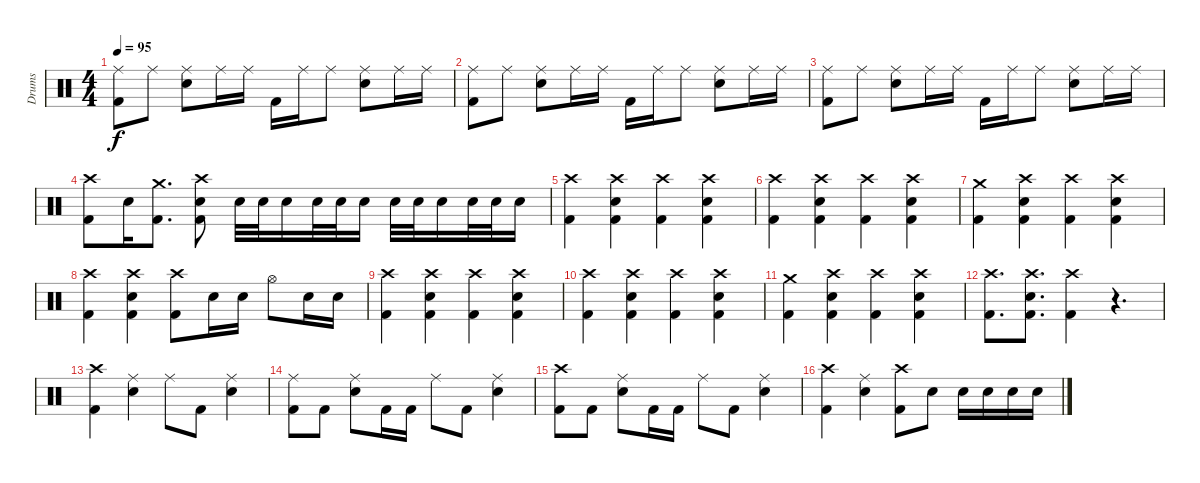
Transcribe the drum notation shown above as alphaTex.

\track ("Drums" "Drums") {instrument percussion}
\staff {score}
\articulation defaults
\ts (4 4)
\tempo 95
\clef neutral
\ks c
("Ride (middle)" "Kick (hit) 2").8{dy f} "Ride (middle)".8 ("Ride (middle)" "Snare (hit) 2").8 "Ride (middle)".16 "Ride (middle)".16 "Kick (hit) 2".16 "Ride (middle)".16 "Ride (middle)".8 ("Ride (middle)" "Snare (hit) 2").8 "Ride (middle)".16 "Ride (middle)".16 |
("Ride (middle)" "Kick (hit) 2").8 "Ride (middle)".8 ("Ride (middle)" "Snare (hit) 2").8 "Ride (middle)".16 "Ride (middle)".16 "Kick (hit) 2".16 "Ride (middle)".16 "Ride (middle)".8 ("Ride (middle)" "Snare (hit) 2").8 "Ride (middle)".16 "Ride (middle)".16 |
("Ride (middle)" "Kick (hit) 2").8 "Ride (middle)".8 ("Ride (middle)" "Snare (hit) 2").8 "Ride (middle)".16 "Ride (middle)".16 "Kick (hit) 2".16 "Ride (middle)".16 "Ride (middle)".8 ("Ride (middle)" "Snare (hit) 2").8 "Ride (middle)".16 "Ride (middle)".16 |
("Crash high (hit)" "Kick (hit) 2").8 "Snare (hit) 2".16 ("Crash medium (hit)" "Kick (hit) 2").8{d} ("Crash high (hit)" "Snare (hit) 2" "Kick (hit) 2").8 "Snare (hit) 2".32 "Snare (hit) 2".32 "Snare (hit) 2".16 "Snare (hit) 2".32 "Snare (hit) 2".32 "Snare (hit) 2".16 "Snare (hit) 2".32 "Snare (hit) 2".32 "Snare (hit) 2".16 "Snare (hit) 2".32 "Snare (hit) 2".32 "Snare (hit) 2".16 |
("Crash high (hit)" "Kick (hit) 2").4 ("Crash high (hit)" "Snare (hit) 2" "Kick (hit) 2").4 ("Crash high (hit)" "Kick (hit) 2").4 ("Crash high (hit)" "Snare (hit) 2" "Kick (hit) 2").4 |
("Crash high (hit)" "Kick (hit) 2").4 ("Crash high (hit)" "Snare (hit) 2" "Kick (hit) 2").4 ("Crash high (hit)" "Kick (hit) 2").4 ("Crash high (hit)" "Snare (hit) 2" "Kick (hit) 2").4 |
("Crash medium (hit)" "Kick (hit) 2").4 ("Crash high (hit)" "Snare (hit) 2" "Kick (hit) 2").4 ("Crash high (hit)" "Kick (hit) 2").4 ("Crash high (hit)" "Snare (hit) 2" "Kick (hit) 2").4 |
("Crash high (hit)" "Kick (hit) 2").4 ("Crash high (hit)" "Snare (hit) 2" "Kick (hit) 2").4 ("Crash high (hit)" "Kick (hit) 2").8 "Snare (hit) 2".16 "Snare (hit) 2".16 "Hi-Hat (open)".8 "Snare (hit) 2".16 "Snare (hit) 2".16 |
("Crash high (hit)" "Kick (hit) 2").4 ("Crash high (hit)" "Snare (hit) 2" "Kick (hit) 2").4 ("Crash high (hit)" "Kick (hit) 2").4 ("Crash high (hit)" "Snare (hit) 2" "Kick (hit) 2").4 |
("Crash high (hit)" "Kick (hit) 2").4 ("Crash high (hit)" "Snare (hit) 2" "Kick (hit) 2").4 ("Crash high (hit)" "Kick (hit) 2").4 ("Crash high (hit)" "Snare (hit) 2" "Kick (hit) 2").4 |
("Crash medium (hit)" "Kick (hit) 2").4 ("Crash high (hit)" "Snare (hit) 2" "Kick (hit) 2").4 ("Crash high (hit)" "Kick (hit) 2").4 ("Crash high (hit)" "Snare (hit) 2" "Kick (hit) 2").4 |
("Crash high (hit)" "Kick (hit) 2").8{d} ("Crash high (hit)" "Snare (hit) 2" "Kick (hit) 2").8{d} ("Crash high (hit)" "Kick (hit) 2").4 r.4{d} |
("Crash high (hit)" "Kick (hit) 2").4 ("Ride (middle)" "Snare (hit) 2").4 "Ride (middle)".8 "Kick (hit) 2".8 ("Ride (middle)" "Snare (hit) 2").4 |
("Ride (middle)" "Kick (hit) 2").8 "Kick (hit) 2".8 ("Ride (middle)" "Snare (hit) 2").8 "Kick (hit) 2".16 "Kick (hit) 2".16 "Ride (middle)".8 "Kick (hit) 2".8 ("Ride (middle)" "Snare (hit) 2").4 |
("Crash high (hit)" "Kick (hit) 2").8 "Kick (hit) 2".8 ("Ride (middle)" "Snare (hit) 2").8 "Kick (hit) 2".16 "Kick (hit) 2".16 "Ride (middle)".8 "Kick (hit) 2".8 ("Ride (middle)" "Snare (hit) 2").4 |
("Crash high (hit)" "Kick (hit) 2").4 ("Ride (middle)" "Snare (hit) 2").4 ("Crash high (hit)" "Kick (hit) 2").8 "Snare (hit) 2".8 "Snare (hit) 2".16 "Snare (hit) 2".16 "Snare (hit) 2".16 "Snare (hit) 2".16
